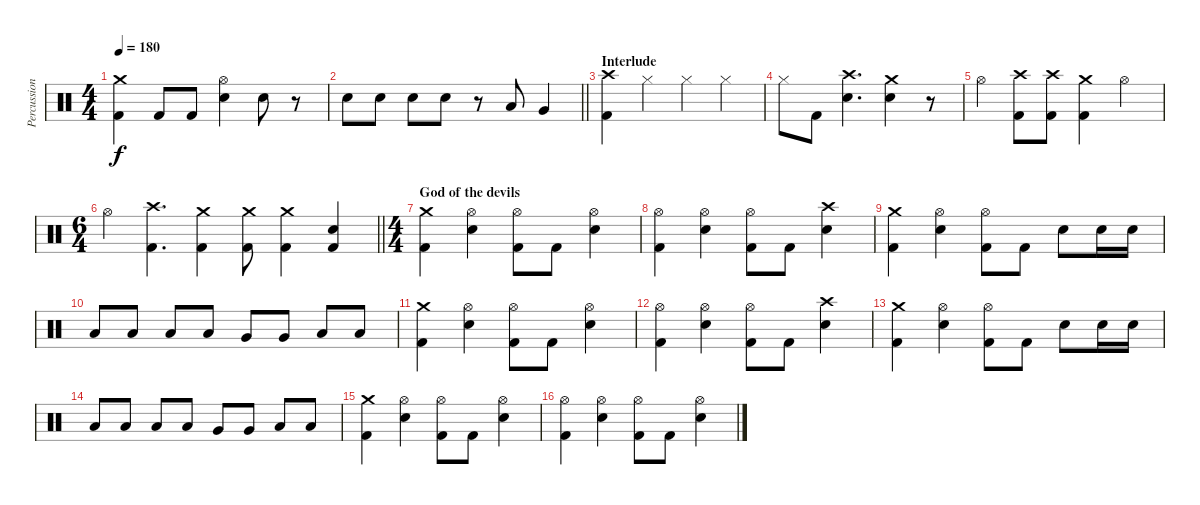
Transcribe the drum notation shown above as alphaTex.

\track ("Percussion" "Percussion") {instrument percussion}
\staff {score}
\articulation defaults
\ts (4 4)
\tempo 180
\clef neutral
\ks c
("Crash medium (hit)" "Kick (hit) 2").4{dy f} "Kick (hit) 2".8 "Kick (hit) 2".8 ("Hi-Hat (open)" "Snare (hit) 2").4 "Snare (hit) 2".8 r.8 |
\barLineRight lightlight "Snare (hit) 2".8 "Snare (hit) 2".8 "Snare (hit) 2".8 "Snare (hit) 2".8
r.8 "Low Tom (hit)".8 "Very Low Tom (hit)".4 |
\section ("" "Interlude")
("Crash high (hit)" "Kick (hit) 2").4 "Hi-Hat (closed)".4 "Hi-Hat (closed)".4 "Hi-Hat (closed)".4 |
"Hi-Hat (closed)".8 "Kick (hit) 2".8 ("Crash high (hit)" "Snare (hit) 2").4{d} ("Crash medium (hit)" "Snare (hit) 2").4 r.8 |
"Hi-Hat (open)".4 ("Crash high (hit)" "Kick (hit) 2").8 ("Crash high (hit)" "Kick (hit) 2").8 ("Crash medium (hit)" "Kick (hit) 2").4 "Hi-Hat (open)".4 |
\ts (6 4)
\barLineRight lightlight "Hi-Hat (open)".4
("Crash high (hit)" "Kick (hit) 2").4{d} ("Crash medium (hit)" "Kick (hit) 2").4 ("Crash medium (hit)" "Kick (hit) 2").8 ("Crash medium (hit)" "Kick (hit) 2").4 ("Snare (hit) 2" "Kick (hit) 2").4 |
\ts (4 4)
\section ("" "God of the devils")
("Crash medium (hit)" "Kick (hit) 2").4 ("Hi-Hat (open)" "Snare (hit) 2").4 ("Hi-Hat (open)" "Kick (hit) 2").8 "Kick (hit) 2".8 ("Hi-Hat (open)" "Snare (hit) 2").4 |
("Hi-Hat (open)" "Kick (hit) 2").4 ("Hi-Hat (open)" "Snare (hit) 2").4 ("Hi-Hat (open)" "Kick (hit) 2").8 "Kick (hit) 2".8 ("Crash high (hit)" "Snare (hit) 2").4 |
("Crash medium (hit)" "Kick (hit) 2").4 ("Hi-Hat (open)" "Snare (hit) 2").4 ("Hi-Hat (open)" "Kick (hit) 2").8 "Kick (hit) 2".8 "Snare (hit) 2".8 "Snare (hit) 2".16 "Snare (hit) 2".16 |
"Low Tom (hit)".8 "Low Tom (hit)".8 "Low Tom (hit)".8 "Low Tom (hit)".8 "Very Low Tom (hit)".8 "Very Low Tom (hit)".8 "Low Floor Tom (hit)".8 "Low Floor Tom (hit)".8 |
("Crash medium (hit)" "Kick (hit) 2").4 ("Hi-Hat (open)" "Snare (hit) 2").4 ("Hi-Hat (open)" "Kick (hit) 2").8 "Kick (hit) 2".8 ("Hi-Hat (open)" "Snare (hit) 2").4 |
("Hi-Hat (open)" "Kick (hit) 2").4 ("Hi-Hat (open)" "Snare (hit) 2").4 ("Hi-Hat (open)" "Kick (hit) 2").8 "Kick (hit) 2".8 ("Crash high (hit)" "Snare (hit) 2").4 |
("Crash medium (hit)" "Kick (hit) 2").4 ("Hi-Hat (open)" "Snare (hit) 2").4 ("Hi-Hat (open)" "Kick (hit) 2").8 "Kick (hit) 2".8 "Snare (hit) 2".8 "Snare (hit) 2".16 "Snare (hit) 2".16 |
"Low Tom (hit)".8 "Low Tom (hit)".8 "Low Tom (hit)".8 "Low Tom (hit)".8 "Very Low Tom (hit)".8 "Very Low Tom (hit)".8 "Low Floor Tom (hit)".8 "Low Floor Tom (hit)".8 |
("Crash medium (hit)" "Kick (hit) 2").4 ("Hi-Hat (open)" "Snare (hit) 2").4 ("Hi-Hat (open)" "Kick (hit) 2").8 "Kick (hit) 2".8 ("Hi-Hat (open)" "Snare (hit) 2").4 |
("Hi-Hat (open)" "Kick (hit) 2").4 ("Hi-Hat (open)" "Snare (hit) 2").4 ("Hi-Hat (open)" "Kick (hit) 2").8 "Kick (hit) 2".8 ("Hi-Hat (open)" "Snare (hit) 2").4
